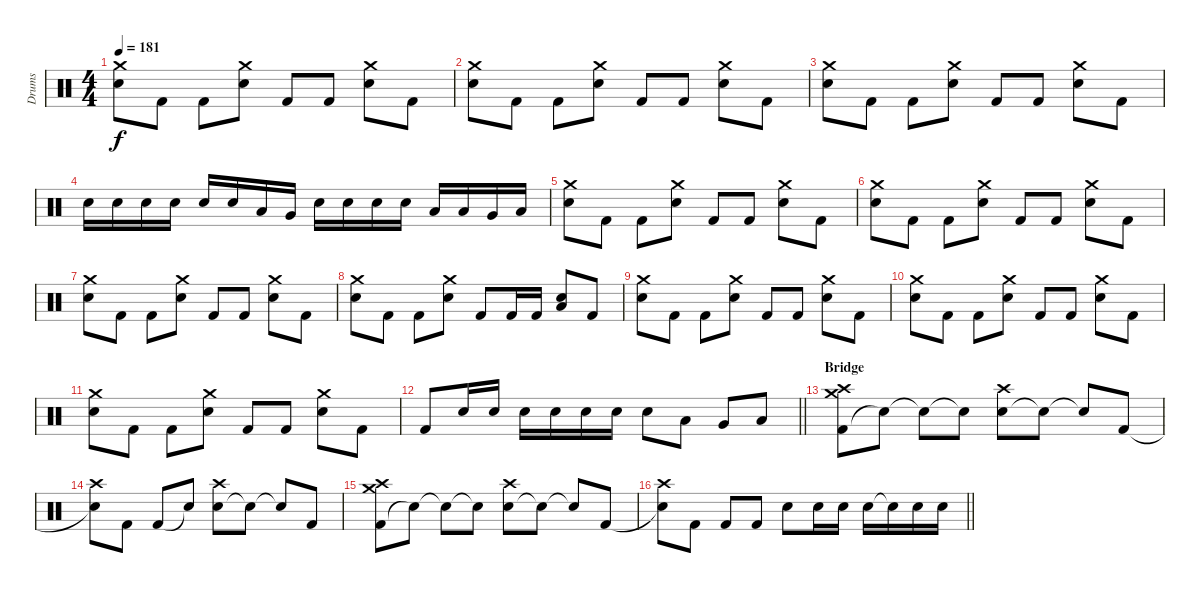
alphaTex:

\track ("Drums" "Drums") {instrument percussion}
\staff {score}
\articulation defaults
\ts (4 4)
\tempo 181
\clef neutral
\ks c
("Electric Snare (hit)" "Crash medium (hit)").8{dy f} "Kick (hit) 2".8 "Kick (hit) 2".8 ("Electric Snare (hit)" "Crash medium (hit)").8 "Kick (hit) 2".8 "Kick (hit) 2".8 ("Electric Snare (hit)" "Crash medium (hit)").8 "Kick (hit) 2".8 |
("Electric Snare (hit)" "Crash medium (hit)").8 "Kick (hit) 2".8 "Kick (hit) 2".8 ("Electric Snare (hit)" "Crash medium (hit)").8 "Kick (hit) 2".8 "Kick (hit) 2".8 ("Electric Snare (hit)" "Crash medium (hit)").8 "Kick (hit) 2".8 |
("Electric Snare (hit)" "Crash medium (hit)").8 "Kick (hit) 2".8 "Kick (hit) 2".8 ("Electric Snare (hit)" "Crash medium (hit)").8 "Kick (hit) 2".8 "Kick (hit) 2".8 ("Electric Snare (hit)" "Crash medium (hit)").8 "Kick (hit) 2".8 |
"Electric Snare (hit)".16 "Electric Snare (hit)".16 "Electric Snare (hit)".16 "Electric Snare (hit)".16 "Electric Snare (hit)".16 "Electric Snare (hit)".16 "Low Tom (hit)".16 "Very Low Tom (hit)".16 "Electric Snare (hit)".16 "Electric Snare (hit)".16 "Electric Snare (hit)".16 "Electric Snare (hit)".16 "Low Tom (hit)".16 "Low Tom (hit)".16 "Very Low Tom (hit)".16 "Low Floor Tom (hit)".16 |
("Electric Snare (hit)" "Crash medium (hit)").8 "Kick (hit) 2".8 "Kick (hit) 2".8 ("Electric Snare (hit)" "Crash medium (hit)").8 "Kick (hit) 2".8 "Kick (hit) 2".8 ("Electric Snare (hit)" "Crash medium (hit)").8 "Kick (hit) 2".8 |
("Electric Snare (hit)" "Crash medium (hit)").8 "Kick (hit) 2".8 "Kick (hit) 2".8 ("Electric Snare (hit)" "Crash medium (hit)").8 "Kick (hit) 2".8 "Kick (hit) 2".8 ("Electric Snare (hit)" "Crash medium (hit)").8 "Kick (hit) 2".8 |
("Electric Snare (hit)" "Crash medium (hit)").8 "Kick (hit) 2".8 "Kick (hit) 2".8 ("Electric Snare (hit)" "Crash medium (hit)").8 "Kick (hit) 2".8 "Kick (hit) 2".8 ("Electric Snare (hit)" "Crash medium (hit)").8 "Kick (hit) 2".8 |
("Electric Snare (hit)" "Crash medium (hit)").8 "Kick (hit) 2".8 "Kick (hit) 2".8 ("Electric Snare (hit)" "Crash medium (hit)").8 "Kick (hit) 2".8 "Kick (hit) 2".16 "Kick (hit) 2".16 ("Electric Snare (hit)" "Low Floor Tom (hit)").8 "Kick (hit) 2".8 |
("Electric Snare (hit)" "Crash medium (hit)").8 "Kick (hit) 2".8 "Kick (hit) 2".8 ("Electric Snare (hit)" "Crash medium (hit)").8 "Kick (hit) 2".8 "Kick (hit) 2".8 ("Electric Snare (hit)" "Crash medium (hit)").8 "Kick (hit) 2".8 |
("Electric Snare (hit)" "Crash medium (hit)").8 "Kick (hit) 2".8 "Kick (hit) 2".8 ("Electric Snare (hit)" "Crash medium (hit)").8 "Kick (hit) 2".8 "Kick (hit) 2".8 ("Electric Snare (hit)" "Crash medium (hit)").8 "Kick (hit) 2".8 |
("Electric Snare (hit)" "Crash medium (hit)").8 "Kick (hit) 2".8 "Kick (hit) 2".8 ("Electric Snare (hit)" "Crash medium (hit)").8 "Kick (hit) 2".8 "Kick (hit) 2".8 ("Electric Snare (hit)" "Crash medium (hit)").8 "Kick (hit) 2".8 |
\barLineRight lightlight "Kick (hit) 2".8 "Electric Snare (hit)".16 "Electric Snare (hit)".16 "Electric Snare (hit)".16 "Electric Snare (hit)".16 "Electric Snare (hit)".16 "Electric Snare (hit)".16 "Electric Snare (hit)".8 "Low Tom (hit)".8 "Very Low Tom (hit)".8 "Low Floor Tom (hit)".8
|
\section ("" "Bridge")
("Kick (hit) 2" "Crash high (hit)" "Crash medium (hit)").8 "Snare (hit)"{t}.8 "Snare (hit)"{t}.8 "Snare (hit)"{t}.8 ("Electric Snare (hit)" "Crash high (hit)").8 "Snare (hit)"{t}.8 "Snare (hit)"{t}.8 "Kick (hit) 2".8 |
("Snare (hit)"{t} "Crash high (hit)").8 "Kick (hit) 2".8 "Kick (hit) 2".8 "Snare (hit)"{t}.8 ("Electric Snare (hit)" "Crash high (hit)").8 "Snare (hit)"{t}.8 "Snare (hit)"{t}.8 "Kick (hit) 2".8 |
("Kick (hit) 2" "Crash high (hit)" "Crash medium (hit)").8 "Snare (hit)"{t}.8 "Snare (hit)"{t}.8 "Snare (hit)"{t}.8 ("Electric Snare (hit)" "Crash high (hit)").8 "Snare (hit)"{t}.8 "Snare (hit)"{t}.8 "Kick (hit) 2".8 |
\barLineRight lightlight
("Snare (hit)"{t} "Crash high (hit)").8 "Kick (hit) 2".8 "Kick (hit) 2".8 "Kick (hit) 2".8 "Electric Snare (hit)".8 "Electric Snare (hit)".16 "Electric Snare (hit)".16 "Electric Snare (hit)".16 "Snare (hit)"{t}.16 "Electric Snare (hit)".16 "Electric Snare (hit)".16
